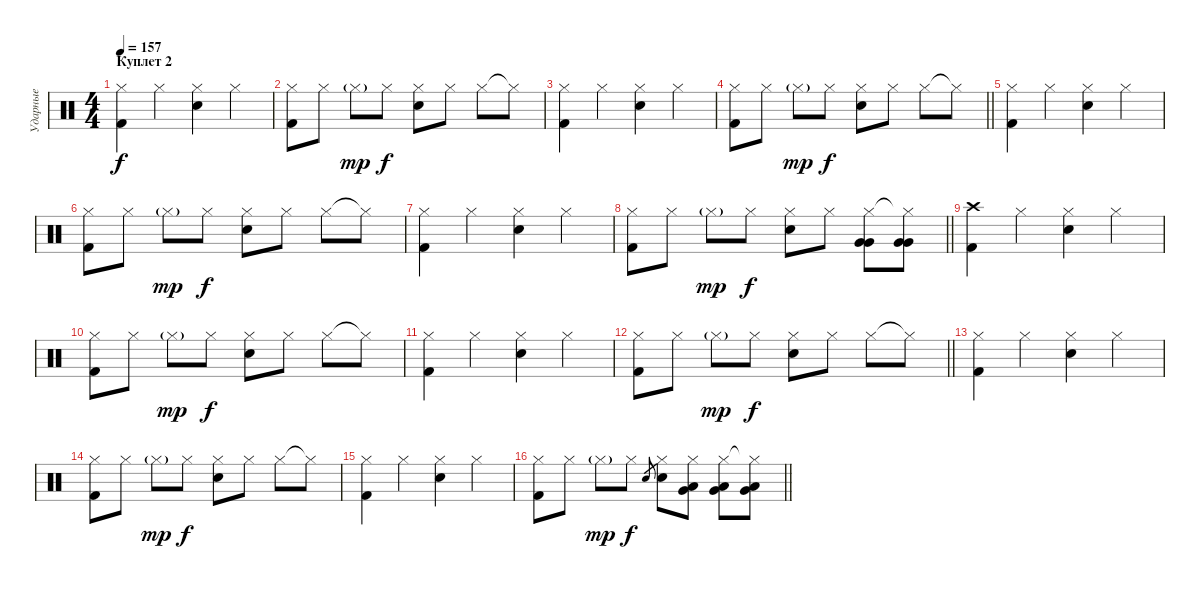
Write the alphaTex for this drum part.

\track ("Ударные" "Ударные") {instrument percussion}
\staff {score}
\articulation defaults
\ts (4 4)
\section ("" "Куплет 2")
\tempo 157
\clef neutral
\ks c
("Hi-Hat (closed)" "Kick (hit) 2").4{dy f} "Hi-Hat (closed)".4 ("Hi-Hat (closed)" "Snare (hit) 2").4 "Hi-Hat (closed)".4 |
("Hi-Hat (closed)" "Kick (hit) 2").8 "Hi-Hat (closed)".8 "Hi-Hat (closed)"{g}.8{dy mp} "Hi-Hat (closed)".8{dy f} ("Hi-Hat (closed)" "Snare (hit) 2").8 "Hi-Hat (closed)".8 "Hi-Hat (closed)".8 "Hi-Hat (closed)"{t}.8 |
("Hi-Hat (closed)" "Kick (hit) 2").4 "Hi-Hat (closed)".4 ("Hi-Hat (closed)" "Snare (hit) 2").4 "Hi-Hat (closed)".4 |
\barLineRight lightlight
("Hi-Hat (closed)" "Kick (hit) 2").8 "Hi-Hat (closed)".8 "Hi-Hat (closed)"{g}.8{dy mp} "Hi-Hat (closed)".8{dy f} ("Hi-Hat (closed)" "Snare (hit) 2").8 "Hi-Hat (closed)".8 "Hi-Hat (closed)".8 "Hi-Hat (closed)"{t}.8 |
("Hi-Hat (closed)" "Kick (hit) 2").4 "Hi-Hat (closed)".4 ("Hi-Hat (closed)" "Snare (hit) 2").4 "Hi-Hat (closed)".4 |
("Hi-Hat (closed)" "Kick (hit) 2").8 "Hi-Hat (closed)".8 "Hi-Hat (closed)"{g}.8{dy mp} "Hi-Hat (closed)".8{dy f} ("Hi-Hat (closed)" "Snare (hit) 2").8 "Hi-Hat (closed)".8 "Hi-Hat (closed)".8 "Hi-Hat (closed)"{t}.8 |
("Hi-Hat (closed)" "Kick (hit) 2").4 "Hi-Hat (closed)".4 ("Hi-Hat (closed)" "Snare (hit) 2").4 "Hi-Hat (closed)".4 |
\barLineRight lightlight
("Hi-Hat (closed)" "Kick (hit) 2").8 "Hi-Hat (closed)".8 "Hi-Hat (closed)"{g}.8{dy mp} "Hi-Hat (closed)".8{dy f} ("Hi-Hat (closed)" "Snare (hit) 2").8 "Hi-Hat (closed)".8 ("Hi-Hat (closed)" "Very Low Tom (hit)" "Very Low Tom (hit)").8 ("Hi-Hat (closed)"{t} "Very Low Tom (hit)" "Very Low Tom (hit)").8 |
("Crash high (hit)" "Kick (hit) 2").4 "Hi-Hat (closed)".4 ("Hi-Hat (closed)" "Snare (hit) 2").4 "Hi-Hat (closed)".4 |
("Hi-Hat (closed)" "Kick (hit) 2").8 "Hi-Hat (closed)".8 "Hi-Hat (closed)"{g}.8{dy mp} "Hi-Hat (closed)".8{dy f} ("Hi-Hat (closed)" "Snare (hit) 2").8 "Hi-Hat (closed)".8 "Hi-Hat (closed)".8 "Hi-Hat (closed)"{t}.8 |
("Hi-Hat (closed)" "Kick (hit) 2").4 "Hi-Hat (closed)".4 ("Hi-Hat (closed)" "Snare (hit) 2").4 "Hi-Hat (closed)".4 |
\barLineRight lightlight
("Hi-Hat (closed)" "Kick (hit) 2").8 "Hi-Hat (closed)".8 "Hi-Hat (closed)"{g}.8{dy mp} "Hi-Hat (closed)".8{dy f} ("Hi-Hat (closed)" "Snare (hit) 2").8 "Hi-Hat (closed)".8 "Hi-Hat (closed)".8 "Hi-Hat (closed)"{t}.8 |
("Hi-Hat (closed)" "Kick (hit) 2").4 "Hi-Hat (closed)".4 ("Hi-Hat (closed)" "Snare (hit) 2").4 "Hi-Hat (closed)".4 |
("Hi-Hat (closed)" "Kick (hit) 2").8 "Hi-Hat (closed)".8 "Hi-Hat (closed)"{g}.8{dy mp} "Hi-Hat (closed)".8{dy f} ("Hi-Hat (closed)" "Snare (hit) 2").8 "Hi-Hat (closed)".8 "Hi-Hat (closed)".8 "Hi-Hat (closed)"{t}.8 |
("Hi-Hat (closed)" "Kick (hit) 2").4 "Hi-Hat (closed)".4 ("Hi-Hat (closed)" "Snare (hit) 2").4 "Hi-Hat (closed)".4 |
\barLineRight lightlight
("Hi-Hat (closed)" "Kick (hit) 2").8 "Hi-Hat (closed)".8 "Hi-Hat (closed)"{g}.8{dy mp} "Hi-Hat (closed)".8{dy f} "Snare (hit) 2".8{gr} ("Hi-Hat (closed)" "Snare (hit) 2").8 ("Hi-Hat (closed)" "Very Low Tom (hit)" "Low Tom (hit)").8 ("Hi-Hat (closed)" "Very Low Tom (hit)" "Low Tom (hit)").8 ("Hi-Hat (closed)"{t} "Very Low Tom (hit)" "Low Tom (hit)").8
